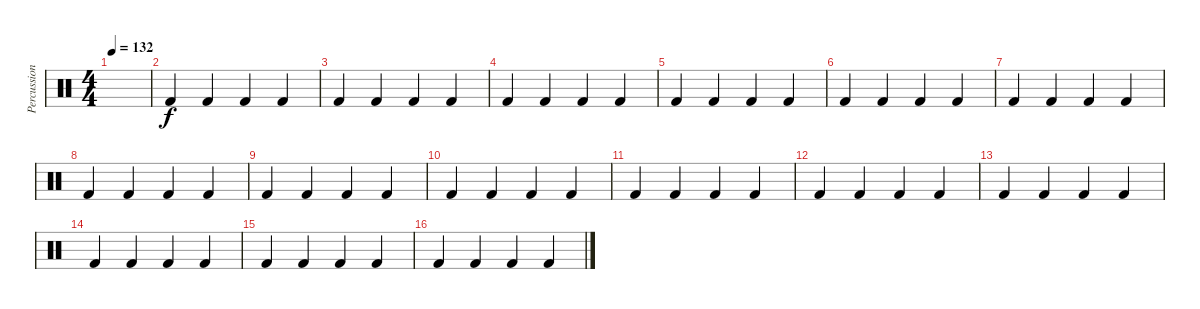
\track ("Percussion" "Percussion") {instrument percussion}
\staff {score}
\articulation defaults
\ts (4 4)
\tempo 132
\clef neutral
\ks c
|
"Kick (hit) 2".4 "Kick (hit) 2".4 "Kick (hit) 2".4 "Kick (hit) 2".4 |
"Kick (hit) 2".4 "Kick (hit) 2".4 "Kick (hit) 2".4 "Kick (hit) 2".4 |
"Kick (hit) 2".4 "Kick (hit) 2".4 "Kick (hit) 2".4 "Kick (hit) 2".4 |
"Kick (hit) 2".4 "Kick (hit) 2".4 "Kick (hit) 2".4 "Kick (hit) 2".4 |
"Kick (hit) 2".4 "Kick (hit) 2".4 "Kick (hit) 2".4 "Kick (hit) 2".4 |
"Kick (hit) 2".4 "Kick (hit) 2".4 "Kick (hit) 2".4 "Kick (hit) 2".4 |
"Kick (hit) 2".4 "Kick (hit) 2".4 "Kick (hit) 2".4 "Kick (hit) 2".4 |
"Kick (hit) 2".4 "Kick (hit) 2".4 "Kick (hit) 2".4 "Kick (hit) 2".4 |
"Kick (hit) 2".4 "Kick (hit) 2".4 "Kick (hit) 2".4 "Kick (hit) 2".4 |
"Kick (hit) 2".4 "Kick (hit) 2".4 "Kick (hit) 2".4 "Kick (hit) 2".4 |
"Kick (hit) 2".4 "Kick (hit) 2".4 "Kick (hit) 2".4 "Kick (hit) 2".4 |
"Kick (hit) 2".4 "Kick (hit) 2".4 "Kick (hit) 2".4 "Kick (hit) 2".4 |
"Kick (hit) 2".4 "Kick (hit) 2".4 "Kick (hit) 2".4 "Kick (hit) 2".4 |
"Kick (hit) 2".4 "Kick (hit) 2".4 "Kick (hit) 2".4 "Kick (hit) 2".4 |
"Kick (hit) 2".4 "Kick (hit) 2".4 "Kick (hit) 2".4 "Kick (hit) 2".4
